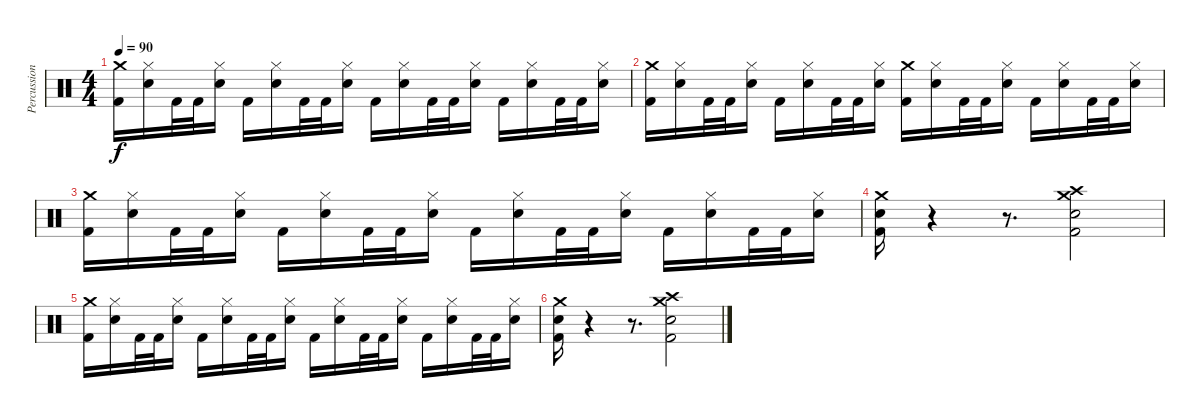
\track ("Percussion" "Percussion") {instrument percussion}
\staff {score}
\articulation defaults
\ts (4 4)
\tempo 90
\clef neutral
\ks c
("Crash medium (hit)" "Kick (hit) 2").16{dy f} ("Hi-Hat (closed)" "Snare (hit) 2").16 "Kick (hit) 2".32 "Kick (hit) 2".32 ("Hi-Hat (closed)" "Snare (hit) 2").16 "Kick (hit) 2".16 ("Hi-Hat (closed)" "Snare (hit) 2").16 "Kick (hit) 2".32 "Kick (hit) 2".32 ("Hi-Hat (closed)" "Snare (hit) 2").16 "Kick (hit) 2".16 ("Hi-Hat (closed)" "Snare (hit) 2").16 "Kick (hit) 2".32 "Kick (hit) 2".32 ("Hi-Hat (closed)" "Snare (hit) 2").16 "Kick (hit) 2".16 ("Hi-Hat (closed)" "Snare (hit) 2").16 "Kick (hit) 2".32 "Kick (hit) 2".32 ("Hi-Hat (closed)" "Snare (hit) 2").16 |
("Crash medium (hit)" "Kick (hit) 2").16 ("Hi-Hat (closed)" "Snare (hit) 2").16 "Kick (hit) 2".32 "Kick (hit) 2".32 ("Hi-Hat (closed)" "Snare (hit) 2").16 "Kick (hit) 2".16 ("Hi-Hat (closed)" "Snare (hit) 2").16 "Kick (hit) 2".32 "Kick (hit) 2".32 ("Hi-Hat (closed)" "Snare (hit) 2").16 ("Crash medium (hit)" "Kick (hit) 2").16 ("Hi-Hat (closed)" "Snare (hit) 2").16 "Kick (hit) 2".32 "Kick (hit) 2".32 ("Hi-Hat (closed)" "Snare (hit) 2").16 "Kick (hit) 2".16 ("Hi-Hat (closed)" "Snare (hit) 2").16 "Kick (hit) 2".32 "Kick (hit) 2".32 ("Hi-Hat (closed)" "Snare (hit) 2").16 |
("Crash medium (hit)" "Kick (hit) 2").16 ("Hi-Hat (closed)" "Snare (hit) 2").16 "Kick (hit) 2".32 "Kick (hit) 2".32 ("Hi-Hat (closed)" "Snare (hit) 2").16 "Kick (hit) 2".16 ("Hi-Hat (closed)" "Snare (hit) 2").16 "Kick (hit) 2".32 "Kick (hit) 2".32 ("Hi-Hat (closed)" "Snare (hit) 2").16 "Kick (hit) 2".16 ("Hi-Hat (closed)" "Snare (hit) 2").16 "Kick (hit) 2".32 "Kick (hit) 2".32 ("Hi-Hat (closed)" "Snare (hit) 2").16 "Kick (hit) 2".16 ("Hi-Hat (closed)" "Snare (hit) 2").16 "Kick (hit) 2".32 "Kick (hit) 2".32 ("Hi-Hat (closed)" "Snare (hit) 2").16 |
("Crash medium (hit)" "Snare (hit) 2" "Kick (hit) 2").16 r.4 r.8{d} ("Crash medium (hit)" "Crash high (hit)" "Snare (hit) 2" "Kick (hit) 2").2 |
("Crash medium (hit)" "Kick (hit) 2").16 ("Hi-Hat (closed)" "Snare (hit) 2").16 "Kick (hit) 2".32 "Kick (hit) 2".32 ("Hi-Hat (closed)" "Snare (hit) 2").16 "Kick (hit) 2".16 ("Hi-Hat (closed)" "Snare (hit) 2").16 "Kick (hit) 2".32 "Kick (hit) 2".32 ("Hi-Hat (closed)" "Snare (hit) 2").16 "Kick (hit) 2".16 ("Hi-Hat (closed)" "Snare (hit) 2").16 "Kick (hit) 2".32 "Kick (hit) 2".32 ("Hi-Hat (closed)" "Snare (hit) 2").16 "Kick (hit) 2".16 ("Hi-Hat (closed)" "Snare (hit) 2").16 "Kick (hit) 2".32 "Kick (hit) 2".32 ("Hi-Hat (closed)" "Snare (hit) 2").16 |
("Crash medium (hit)" "Snare (hit) 2" "Kick (hit) 2").16 r.4 r.8{d} ("Crash medium (hit)" "Crash high (hit)" "Snare (hit) 2" "Kick (hit) 2").2
